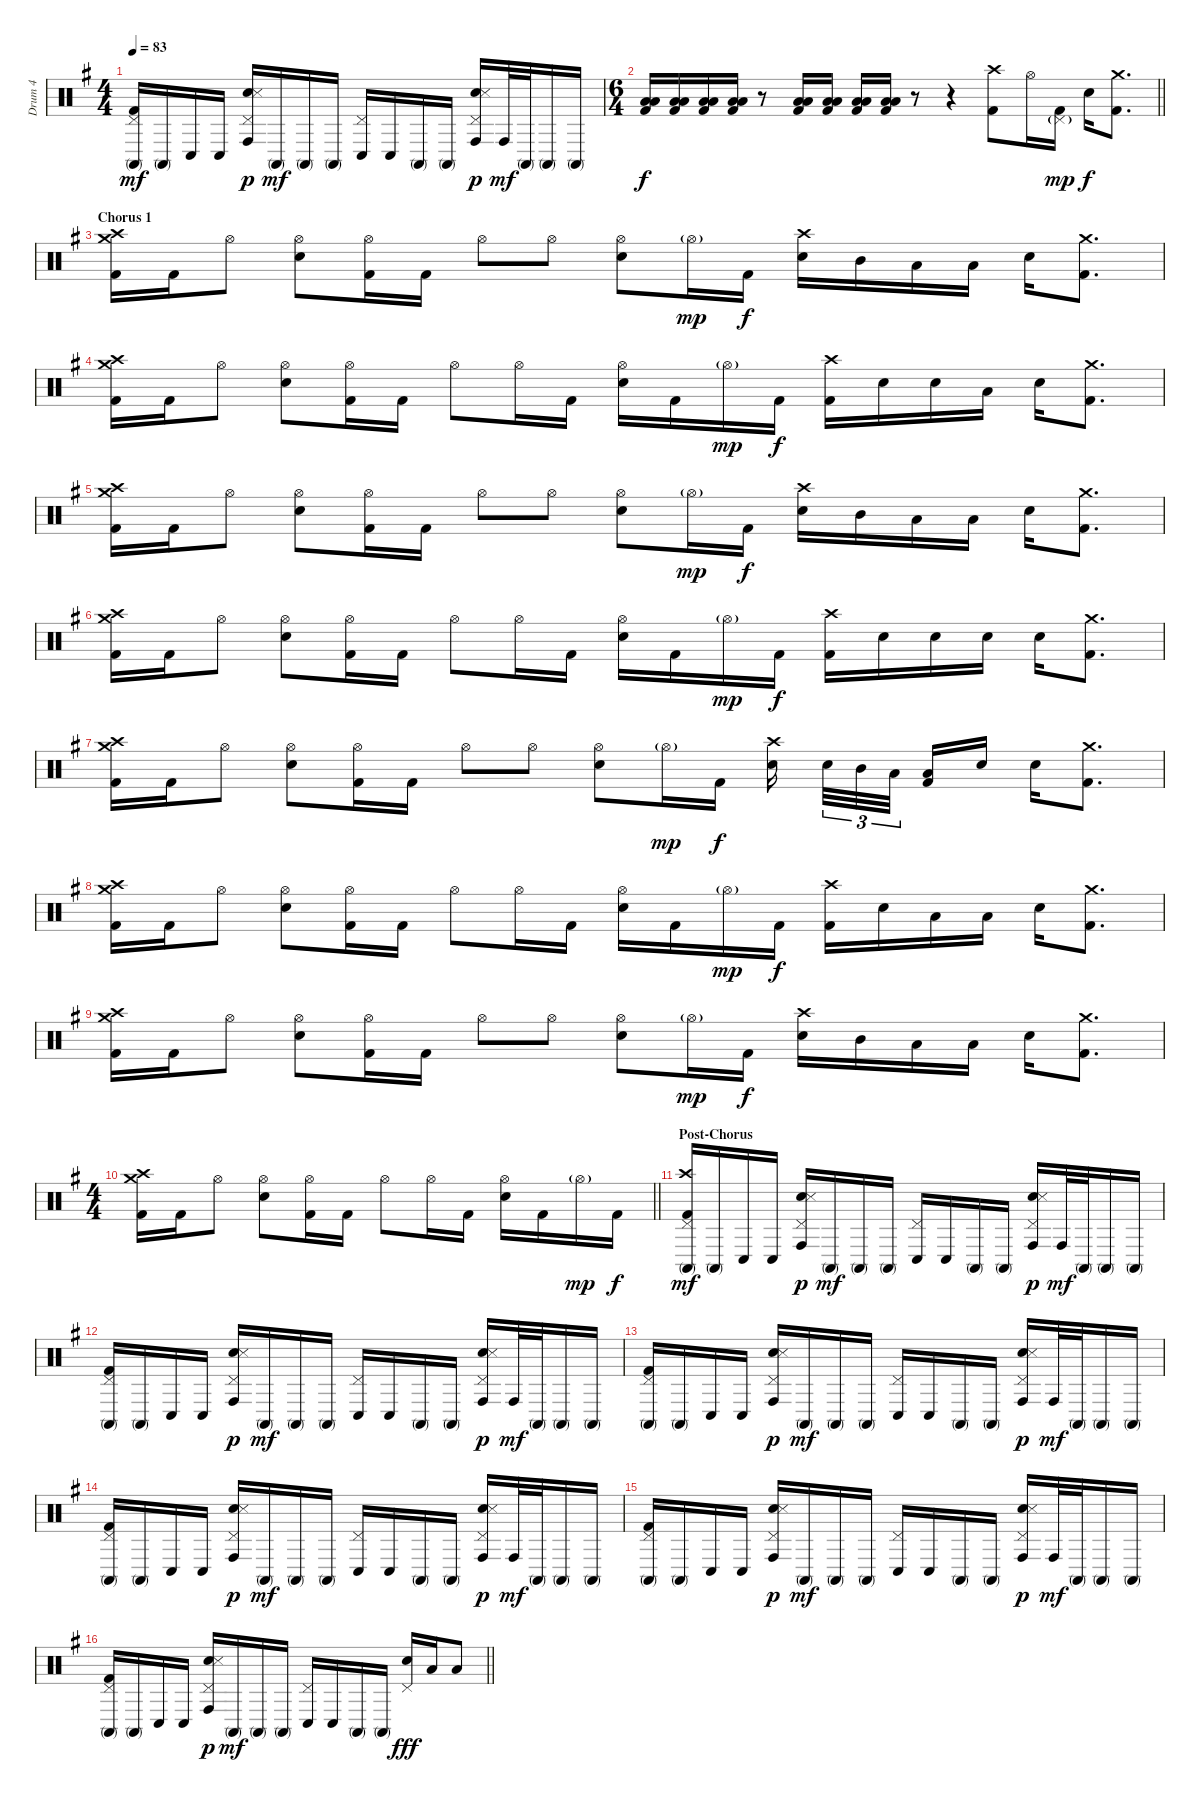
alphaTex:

\track ("Drum 4" "Drum 4") {instrument percussion}
\staff {score}
\articulation defaults
\ts (4 4)
\tempo 83
\clef neutral
\ks eminor
("Pedal Hi-Hat (hit)" "Conga high (mute)" "Kick (hit) 2").16{dy mf} "Conga high (mute)".16 "Conga low (hit)".16 "Conga low (hit)".16 ("Pedal Hi-Hat (hit)" "Conga high (hit)" "Snare (hit) 2" "Snare (side stick) 3").16{dy p} "Conga high (mute)".16{dy mf} "Conga high (mute)".16 "Conga high (mute)".16 ("Pedal Hi-Hat (hit)" "Conga low (hit)").16 "Conga low (hit)".16 "Conga high (mute)".16 "Conga high (mute)".16 ("Pedal Hi-Hat (hit)" "Conga high (hit)" "Snare (hit) 2" "Snare (side stick) 3").16{dy p} "Conga high (hit)".32{dy mf} "Conga high (mute)".32 "Conga high (mute)".16 "Conga high (mute)".16 |
\ts (6 4)
\barLineRight lightlight
("Low Tom (hit)" "Low Floor Tom (hit)" "Kick (hit) 2").16{dy f} ("Low Tom (hit)" "Low Floor Tom (hit)" "Kick (hit) 2").16 ("Low Tom (hit)" "Low Floor Tom (hit)" "Kick (hit) 2").16 ("Low Tom (hit)" "Low Floor Tom (hit)" "Kick (hit) 2").16 r.8 ("Low Tom (hit)" "Low Floor Tom (hit)" "Kick (hit) 2").16 ("Low Tom (hit)" "Low Floor Tom (hit)" "Kick (hit) 2").16 ("Low Tom (hit)" "Low Floor Tom (hit)" "Kick (hit) 2").16 ("Low Tom (hit)" "Low Floor Tom (hit)" "Kick (hit) 2").16 r.8 r.4 ("Crash high (hit)" "Kick (hit) 2").8 "Hi-Hat (open)".16 ("Pedal Hi-Hat (hit)"{g} "Kick (hit) 2").16{dy mp} "Snare (hit) 2".16{dy f} ("Crash medium (hit)" "Kick (hit) 2").8{d} |
\section ("" "Chorus 1")
("Crash high (hit)" "Crash medium (hit)" "Kick (hit) 2").16 "Kick (hit) 2".16 "Hi-Hat (open)".8 ("Hi-Hat (open)" "Snare (hit) 2").8 ("Hi-Hat (open)" "Kick (hit) 2").16 "Kick (hit) 2".16 "Hi-Hat (open)".8 "Hi-Hat (open)".8 ("Hi-Hat (open)" "Snare (hit) 2").8 "Hi-Hat (open)"{g}.16{dy mp} "Kick (hit) 2".16{dy f} ("Crash high (hit)" "Snare (hit) 2").16 "Mid Tom (hit)".16 "Low Tom (hit)".16 "Low Floor Tom (hit)".16 "Snare (hit) 2".16 ("Crash medium (hit)" "Kick (hit) 2").8{d} |
("Crash high (hit)" "Crash medium (hit)" "Kick (hit) 2").16 "Kick (hit) 2".16 "Hi-Hat (open)".8 ("Hi-Hat (open)" "Snare (hit) 2").8 ("Hi-Hat (open)" "Kick (hit) 2").16 "Kick (hit) 2".16 "Hi-Hat (open)".8 "Hi-Hat (open)".16 "Kick (hit) 2".16 ("Hi-Hat (open)" "Snare (hit) 2").16 "Kick (hit) 2".16 "Hi-Hat (open)"{g}.16{dy mp} "Kick (hit) 2".16{dy f} ("Crash high (hit)" "Kick (hit) 2").16 "Snare (hit) 2".16 "Snare (hit) 2".16 "Low Tom (hit)".16 "Snare (hit) 2".16 ("Crash medium (hit)" "Kick (hit) 2").8{d} |
("Crash high (hit)" "Crash medium (hit)" "Kick (hit) 2").16 "Kick (hit) 2".16 "Hi-Hat (open)".8 ("Hi-Hat (open)" "Snare (hit) 2").8 ("Hi-Hat (open)" "Kick (hit) 2").16 "Kick (hit) 2".16 "Hi-Hat (open)".8 "Hi-Hat (open)".8 ("Hi-Hat (open)" "Snare (hit) 2").8 "Hi-Hat (open)"{g}.16{dy mp} "Kick (hit) 2".16{dy f} ("Crash high (hit)" "Snare (hit) 2").16 "Mid Tom (hit)".16 "Low Tom (hit)".16 "Low Floor Tom (hit)".16 "Snare (hit) 2".16 ("Crash medium (hit)" "Kick (hit) 2").8{d} |
("Crash high (hit)" "Crash medium (hit)" "Kick (hit) 2").16 "Kick (hit) 2".16 "Hi-Hat (open)".8 ("Hi-Hat (open)" "Snare (hit) 2").8 ("Hi-Hat (open)" "Kick (hit) 2").16 "Kick (hit) 2".16 "Hi-Hat (open)".8 "Hi-Hat (open)".16 "Kick (hit) 2".16 ("Hi-Hat (open)" "Snare (hit) 2").16 "Kick (hit) 2".16 "Hi-Hat (open)"{g}.16{dy mp} "Kick (hit) 2".16{dy f} ("Crash high (hit)" "Kick (hit) 2").16 "Snare (hit) 2".16 "Snare (hit) 2".16 "Snare (hit) 2".16 "Snare (hit) 2".16 ("Crash medium (hit)" "Kick (hit) 2").8{d} |
("Crash high (hit)" "Crash medium (hit)" "Kick (hit) 2").16 "Kick (hit) 2".16 "Hi-Hat (open)".8 ("Hi-Hat (open)" "Snare (hit) 2").8 ("Hi-Hat (open)" "Kick (hit) 2").16 "Kick (hit) 2".16 "Hi-Hat (open)".8 "Hi-Hat (open)".8 ("Hi-Hat (open)" "Snare (hit) 2").8 "Hi-Hat (open)"{g}.16{dy mp} "Kick (hit) 2".16{dy f} ("Crash high (hit)" "Snare (hit) 2").16{beam splitsecondary} "Snare (hit) 2".32{tu (3 2)} "Mid Tom (hit)".32{tu (3 2)} "Low Tom (hit)".32{tu (3 2) beam splitsecondary} ("Low Floor Tom (hit)" "Kick (hit) 2").16 "Snare (hit) 2".16 "Snare (hit) 2".16 ("Crash medium (hit)" "Kick (hit) 2").8{d} |
("Crash high (hit)" "Crash medium (hit)" "Kick (hit) 2").16 "Kick (hit) 2".16 "Hi-Hat (open)".8 ("Hi-Hat (open)" "Snare (hit) 2").8 ("Hi-Hat (open)" "Kick (hit) 2").16 "Kick (hit) 2".16 "Hi-Hat (open)".8 "Hi-Hat (open)".16 "Kick (hit) 2".16 ("Hi-Hat (open)" "Snare (hit) 2").16 "Kick (hit) 2".16 "Hi-Hat (open)"{g}.16{dy mp} "Kick (hit) 2".16{dy f} ("Crash high (hit)" "Kick (hit) 2").16 "Snare (hit) 2".16 "Low Tom (hit)".16 "Low Tom (hit)".16 "Snare (hit) 2".16 ("Crash medium (hit)" "Kick (hit) 2").8{d} |
("Crash high (hit)" "Crash medium (hit)" "Kick (hit) 2").16 "Kick (hit) 2".16 "Hi-Hat (open)".8 ("Hi-Hat (open)" "Snare (hit) 2").8 ("Hi-Hat (open)" "Kick (hit) 2").16 "Kick (hit) 2".16 "Hi-Hat (open)".8 "Hi-Hat (open)".8 ("Hi-Hat (open)" "Snare (hit) 2").8 "Hi-Hat (open)"{g}.16{dy mp} "Kick (hit) 2".16{dy f} ("Crash high (hit)" "Snare (hit) 2").16 "Mid Tom (hit)".16 "Low Tom (hit)".16 "Low Floor Tom (hit)".16 "Snare (hit) 2".16 ("Crash medium (hit)" "Kick (hit) 2").8{d} |
\ts (4 4)
\barLineRight lightlight
("Crash high (hit)" "Crash medium (hit)" "Kick (hit) 2").16 "Kick (hit) 2".16 "Hi-Hat (open)".8 ("Hi-Hat (open)" "Snare (hit) 2").8 ("Hi-Hat (open)" "Kick (hit) 2").16 "Kick (hit) 2".16 "Hi-Hat (open)".8 "Hi-Hat (open)".16 "Kick (hit) 2".16 ("Hi-Hat (open)" "Snare (hit) 2").16 "Kick (hit) 2".16 "Hi-Hat (open)"{g}.16{dy mp} "Kick (hit) 2".16{dy f} |
\section ("" "Post-Chorus")
("Crash high (hit)" "Pedal Hi-Hat (hit)" "Conga high (mute)" "Kick (hit) 2").16{dy mf} "Conga high (mute)".16 "Conga low (hit)".16 "Conga low (hit)".16 ("Pedal Hi-Hat (hit)" "Conga high (hit)" "Snare (hit) 2" "Snare (side stick) 3").16{dy p} "Conga high (mute)".16{dy mf} "Conga high (mute)".16 "Conga high (mute)".16 ("Pedal Hi-Hat (hit)" "Conga low (hit)").16 "Conga low (hit)".16 "Conga high (mute)".16 "Conga high (mute)".16 ("Pedal Hi-Hat (hit)" "Conga high (hit)" "Snare (hit) 2" "Snare (side stick) 3").16{dy p} "Conga high (hit)".32{dy mf} "Conga high (mute)".32 "Conga high (mute)".16 "Conga high (mute)".16 |
("Pedal Hi-Hat (hit)" "Conga high (mute)" "Kick (hit) 2").16 "Conga high (mute)".16 "Conga low (hit)".16 "Conga low (hit)".16 ("Pedal Hi-Hat (hit)" "Conga high (hit)" "Snare (hit) 2" "Snare (side stick) 3").16{dy p} "Conga high (mute)".16{dy mf} "Conga high (mute)".16 "Conga high (mute)".16 ("Pedal Hi-Hat (hit)" "Conga low (hit)").16 "Conga low (hit)".16 "Conga high (mute)".16 "Conga high (mute)".16 ("Pedal Hi-Hat (hit)" "Conga high (hit)" "Snare (hit) 2" "Snare (side stick) 3").16{dy p} "Conga high (hit)".32{dy mf} "Conga high (mute)".32 "Conga high (mute)".16 "Conga high (mute)".16 |
("Pedal Hi-Hat (hit)" "Conga high (mute)" "Kick (hit) 2").16 "Conga high (mute)".16 "Conga low (hit)".16 "Conga low (hit)".16 ("Pedal Hi-Hat (hit)" "Conga high (hit)" "Snare (hit) 2" "Snare (side stick) 3").16{dy p} "Conga high (mute)".16{dy mf} "Conga high (mute)".16 "Conga high (mute)".16 ("Pedal Hi-Hat (hit)" "Conga low (hit)").16 "Conga low (hit)".16 "Conga high (mute)".16 "Conga high (mute)".16 ("Pedal Hi-Hat (hit)" "Conga high (hit)" "Snare (hit) 2" "Snare (side stick) 3").16{dy p} "Conga high (hit)".32{dy mf} "Conga high (mute)".32 "Conga high (mute)".16 "Conga high (mute)".16 |
("Pedal Hi-Hat (hit)" "Conga high (mute)" "Kick (hit) 2").16 "Conga high (mute)".16 "Conga low (hit)".16 "Conga low (hit)".16 ("Pedal Hi-Hat (hit)" "Conga high (hit)" "Snare (hit) 2" "Snare (side stick) 3").16{dy p} "Conga high (mute)".16{dy mf} "Conga high (mute)".16 "Conga high (mute)".16 ("Pedal Hi-Hat (hit)" "Conga low (hit)").16 "Conga low (hit)".16 "Conga high (mute)".16 "Conga high (mute)".16 ("Pedal Hi-Hat (hit)" "Conga high (hit)" "Snare (hit) 2" "Snare (side stick) 3").16{dy p} "Conga high (hit)".32{dy mf} "Conga high (mute)".32 "Conga high (mute)".16 "Conga high (mute)".16 |
("Pedal Hi-Hat (hit)" "Conga high (mute)" "Kick (hit) 2").16 "Conga high (mute)".16 "Conga low (hit)".16 "Conga low (hit)".16 ("Pedal Hi-Hat (hit)" "Conga high (hit)" "Snare (hit) 2" "Snare (side stick) 3").16{dy p} "Conga high (mute)".16{dy mf} "Conga high (mute)".16 "Conga high (mute)".16 ("Pedal Hi-Hat (hit)" "Conga low (hit)").16 "Conga low (hit)".16 "Conga high (mute)".16 "Conga high (mute)".16 ("Pedal Hi-Hat (hit)" "Conga high (hit)" "Snare (hit) 2" "Snare (side stick) 3").16{dy p} "Conga high (hit)".32{dy mf} "Conga high (mute)".32 "Conga high (mute)".16 "Conga high (mute)".16 |
\barLineRight lightlight
("Pedal Hi-Hat (hit)" "Conga high (mute)" "Kick (hit) 2").16 "Conga high (mute)".16 "Conga low (hit)".16 "Conga low (hit)".16 ("Pedal Hi-Hat (hit)" "Conga high (hit)" "Snare (hit) 2" "Snare (side stick) 3").16{dy p} "Conga high (mute)".16{dy mf} "Conga high (mute)".16 "Conga high (mute)".16 ("Pedal Hi-Hat (hit)" "Conga low (hit)").16 "Conga low (hit)".16 "Conga high (mute)".16 "Conga high (mute)".16 ("Pedal Hi-Hat (hit)" "Snare (hit) 2").16{dy fff} "Low Tom (hit)".16 "Low Tom (hit)".8
